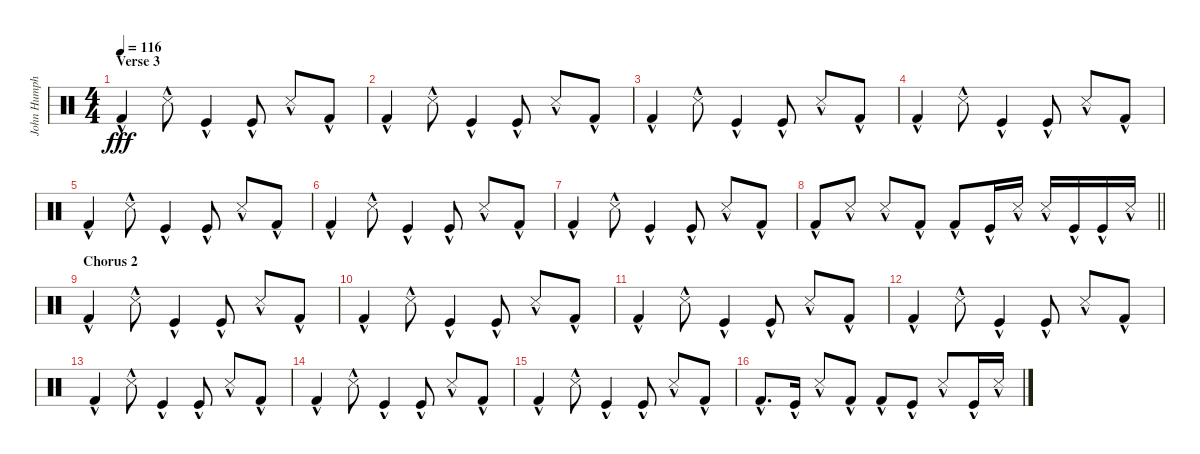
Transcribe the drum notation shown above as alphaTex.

\track ("John Humphrey (Percussions)" "John Humph") {instrument percussion}
\staff {score}
\articulation defaults
\ts (4 4)
\section ("" "Verse 3")
\tempo 116
\clef neutral
\ks c "Kick (hit) 2"{hac}.4{dy fff} "Snare (side stick) 3"{hac}.8 "Kick (hit)"{hac}.4 "Kick (hit)"{hac}.8 "Snare (side stick) 3"{hac}.8 "Kick (hit) 2"{hac}.8
|
"Kick (hit) 2"{hac}.4 "Snare (side stick) 3"{hac}.8 "Kick (hit)"{hac}.4 "Kick (hit)"{hac}.8 "Snare (side stick) 3"{hac}.8 "Kick (hit) 2"{hac}.8 |
"Kick (hit) 2"{hac}.4 "Snare (side stick) 3"{hac}.8 "Kick (hit)"{hac}.4 "Kick (hit)"{hac}.8 "Snare (side stick) 3"{hac}.8 "Kick (hit) 2"{hac}.8 |
"Kick (hit) 2"{hac}.4 "Snare (side stick) 3"{hac}.8 "Kick (hit)"{hac}.4 "Kick (hit)"{hac}.8 "Snare (side stick) 3"{hac}.8 "Kick (hit) 2"{hac}.8 |
"Kick (hit) 2"{hac}.4 "Snare (side stick) 3"{hac}.8 "Kick (hit)"{hac}.4 "Kick (hit)"{hac}.8 "Snare (side stick) 3"{hac}.8 "Kick (hit) 2"{hac}.8 |
"Kick (hit) 2"{hac}.4 "Snare (side stick) 3"{hac}.8 "Kick (hit)"{hac}.4 "Kick (hit)"{hac}.8 "Snare (side stick) 3"{hac}.8 "Kick (hit) 2"{hac}.8 |
"Kick (hit) 2"{hac}.4 "Snare (side stick) 3"{hac}.8 "Kick (hit)"{hac}.4 "Kick (hit)"{hac}.8 "Snare (side stick) 3"{hac}.8 "Kick (hit) 2"{hac}.8 |
\barLineRight lightlight "Kick (hit) 2"{hac}.8 "Snare (side stick) 3"{hac}.8 "Snare (side stick) 3"{hac}.8 "Kick (hit) 2"{hac}.8 "Kick (hit) 2"{hac}.8 "Kick (hit)"{hac}.16 "Snare (side stick) 3"{hac}.16 "Snare (side stick) 3"{hac}.16 "Kick (hit)"{hac}.16 "Kick (hit)"{hac}.16 "Snare (side stick) 3"{hac}.16
|
\section ("" "Chorus 2")
"Kick (hit) 2"{hac}.4 "Snare (side stick) 3"{hac}.8 "Kick (hit)"{hac}.4 "Kick (hit)"{hac}.8 "Snare (side stick) 3"{hac}.8 "Kick (hit) 2"{hac}.8 |
"Kick (hit) 2"{hac}.4 "Snare (side stick) 3"{hac}.8 "Kick (hit)"{hac}.4 "Kick (hit)"{hac}.8 "Snare (side stick) 3"{hac}.8 "Kick (hit) 2"{hac}.8 |
"Kick (hit) 2"{hac}.4 "Snare (side stick) 3"{hac}.8 "Kick (hit)"{hac}.4 "Kick (hit)"{hac}.8 "Snare (side stick) 3"{hac}.8 "Kick (hit) 2"{hac}.8 |
"Kick (hit) 2"{hac}.4 "Snare (side stick) 3"{hac}.8 "Kick (hit)"{hac}.4 "Kick (hit)"{hac}.8 "Snare (side stick) 3"{hac}.8 "Kick (hit) 2"{hac}.8 |
"Kick (hit) 2"{hac}.4 "Snare (side stick) 3"{hac}.8 "Kick (hit)"{hac}.4 "Kick (hit)"{hac}.8 "Snare (side stick) 3"{hac}.8 "Kick (hit) 2"{hac}.8 |
"Kick (hit) 2"{hac}.4 "Snare (side stick) 3"{hac}.8 "Kick (hit)"{hac}.4 "Kick (hit)"{hac}.8 "Snare (side stick) 3"{hac}.8 "Kick (hit) 2"{hac}.8 |
"Kick (hit) 2"{hac}.4 "Snare (side stick) 3"{hac}.8 "Kick (hit)"{hac}.4 "Kick (hit)"{hac}.8 "Snare (side stick) 3"{hac}.8 "Kick (hit) 2"{hac}.8 |
"Kick (hit) 2"{hac}.8{d} "Kick (hit)"{hac}.16 "Snare (side stick) 3"{hac}.8 "Kick (hit) 2"{hac}.8 "Kick (hit) 2"{hac}.8 "Kick (hit)"{hac}.8 "Snare (side stick) 3"{hac}.8 "Kick (hit)"{hac}.16 "Snare (side stick) 3"{hac}.16
